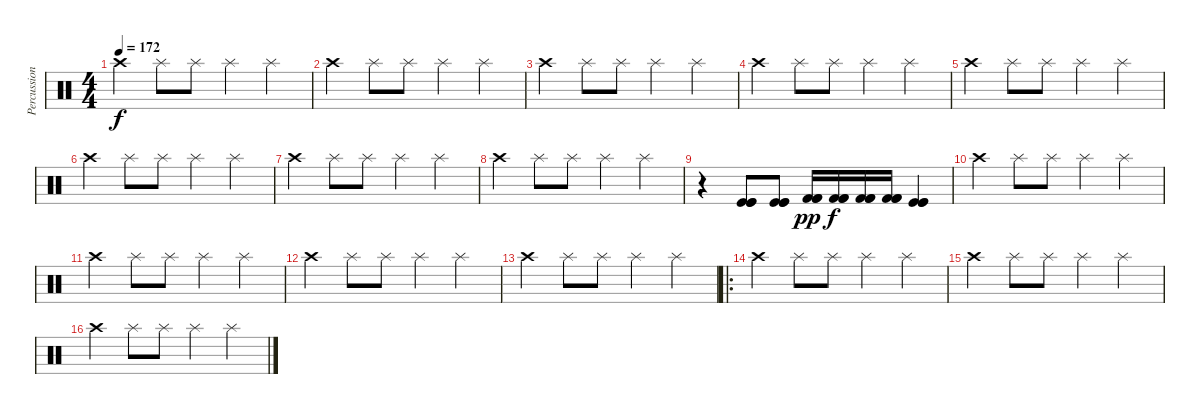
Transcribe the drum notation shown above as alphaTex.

\track ("Percussion" "Percussion") {instrument percussion}
\staff {score}
\articulation defaults
\ts (4 4)
\tempo 172
\clef neutral
\ks c "Crash high (hit)".4{dy f} "Splash (hit)".8 "Splash (hit)".8 "Splash (hit)".4 "Splash (hit)".4
|
"Crash high (hit)".4 "Splash (hit)".8 "Splash (hit)".8 "Splash (hit)".4 "Splash (hit)".4 |
"Crash high (hit)".4 "Splash (hit)".8 "Splash (hit)".8 "Splash (hit)".4 "Splash (hit)".4 |
"Crash high (hit)".4 "Splash (hit)".8 "Splash (hit)".8 "Splash (hit)".4 "Splash (hit)".4 |
"Crash high (hit)".4 "Splash (hit)".8 "Splash (hit)".8 "Splash (hit)".4 "Splash (hit)".4 |
"Crash high (hit)".4 "Splash (hit)".8 "Splash (hit)".8 "Splash (hit)".4 "Splash (hit)".4 |
"Crash high (hit)".4 "Splash (hit)".8 "Splash (hit)".8 "Splash (hit)".4 "Splash (hit)".4 |
"Crash high (hit)".4 "Splash (hit)".8 "Splash (hit)".8 "Splash (hit)".4 "Splash (hit)".4 |
r.4 ("Kick (hit)" "Kick (hit)" "Kick (hit)").8 ("Kick (hit)" "Kick (hit)" "Kick (hit)").8 ("Kick (hit) 2" "Kick (hit) 2" "Kick (hit) 2").16{dy pp} ("Kick (hit) 2" "Kick (hit) 2" "Kick (hit) 2").16{dy f} ("Kick (hit) 2" "Kick (hit) 2" "Kick (hit) 2").16 ("Kick (hit) 2" "Kick (hit) 2" "Kick (hit) 2").16 ("Kick (hit)" "Kick (hit)" "Kick (hit)").4 |
"Crash high (hit)".4 "Splash (hit)".8 "Splash (hit)".8 "Splash (hit)".4 "Splash (hit)".4 |
"Crash high (hit)".4 "Splash (hit)".8 "Splash (hit)".8 "Splash (hit)".4 "Splash (hit)".4 |
"Crash high (hit)".4 "Splash (hit)".8 "Splash (hit)".8 "Splash (hit)".4 "Splash (hit)".4 |
"Crash high (hit)".4 "Splash (hit)".8 "Splash (hit)".8 "Splash (hit)".4 "Splash (hit)".4 |
\ro "Crash high (hit)".4 "Splash (hit)".8 "Splash (hit)".8 "Splash (hit)".4 "Splash (hit)".4
|
"Crash high (hit)".4 "Splash (hit)".8 "Splash (hit)".8 "Splash (hit)".4 "Splash (hit)".4 |
"Crash high (hit)".4 "Splash (hit)".8 "Splash (hit)".8 "Splash (hit)".4 "Splash (hit)".4
